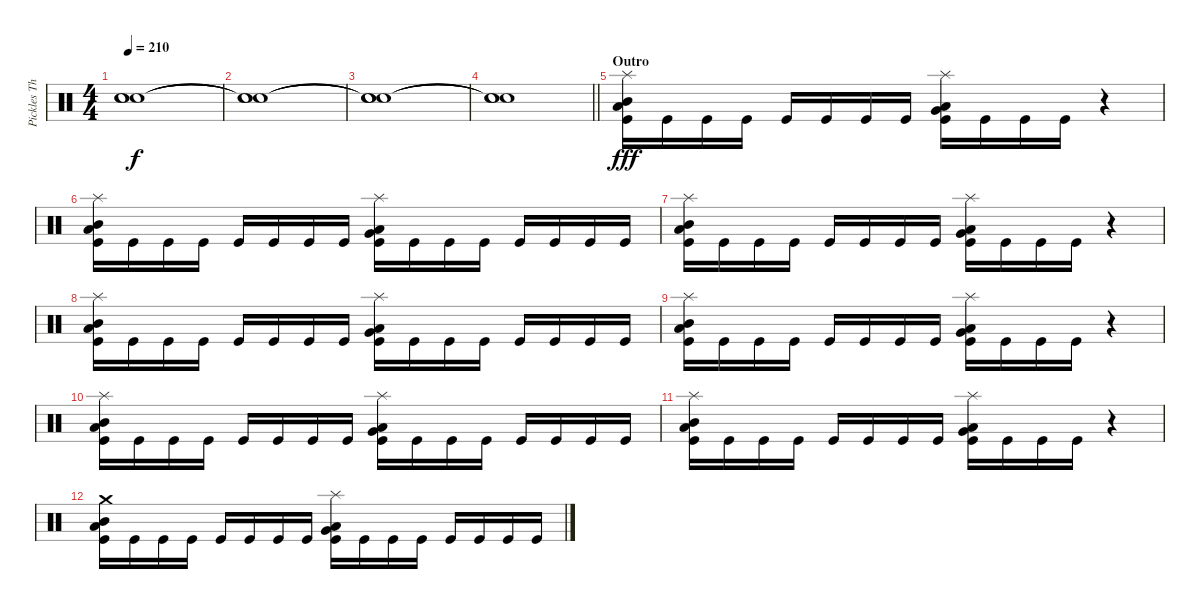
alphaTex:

\track ("Pickles The Drummer (Drums)" "Pickles Th") {instrument percussion}
\staff {score}
\articulation defaults
\ts (4 4)
\tempo 210
\clef neutral
\ks c
("Snare (hit)"{t} "Snare (hit)"{t} "Snare (hit)"{t}).1{dy f} |
("Snare (hit)"{t} "Snare (hit)"{t} "Snare (hit)"{t}).1 |
("Snare (hit)"{t} "Snare (hit)"{t} "Snare (hit)"{t}).1 |
\barLineRight lightlight
("Snare (hit)"{t} "Snare (hit)"{t} "Snare (hit)"{t}).1 |
\section ("" "Outro")
("Splash (hit)" "Mid Tom (hit)" "Low Tom (hit)" "Kick (hit)").16{dy fff} "Kick (hit)".16 "Kick (hit)".16 "Kick (hit)".16 "Kick (hit)".16 "Kick (hit)".16 "Kick (hit)".16 "Kick (hit)".16 ("Splash (hit)" "Very Low Tom (hit)" "Low Floor Tom (hit)" "Kick (hit)").16 "Kick (hit)".16 "Kick (hit)".16 "Kick (hit)".16 r.4 |
("Splash (hit)" "Mid Tom (hit)" "Low Tom (hit)" "Kick (hit)").16 "Kick (hit)".16 "Kick (hit)".16 "Kick (hit)".16 "Kick (hit)".16 "Kick (hit)".16 "Kick (hit)".16 "Kick (hit)".16 ("Splash (hit)" "Very Low Tom (hit)" "Low Floor Tom (hit)" "Kick (hit)").16 "Kick (hit)".16 "Kick (hit)".16 "Kick (hit)".16 "Kick (hit)".16 "Kick (hit)".16 "Kick (hit)".16 "Kick (hit)".16 |
("Splash (hit)" "Mid Tom (hit)" "Low Tom (hit)" "Kick (hit)").16 "Kick (hit)".16 "Kick (hit)".16 "Kick (hit)".16 "Kick (hit)".16 "Kick (hit)".16 "Kick (hit)".16 "Kick (hit)".16 ("Splash (hit)" "Very Low Tom (hit)" "Low Floor Tom (hit)" "Kick (hit)").16 "Kick (hit)".16 "Kick (hit)".16 "Kick (hit)".16 r.4 |
("Splash (hit)" "Mid Tom (hit)" "Low Tom (hit)" "Kick (hit)").16 "Kick (hit)".16 "Kick (hit)".16 "Kick (hit)".16 "Kick (hit)".16 "Kick (hit)".16 "Kick (hit)".16 "Kick (hit)".16 ("Splash (hit)" "Very Low Tom (hit)" "Low Floor Tom (hit)" "Kick (hit)").16 "Kick (hit)".16 "Kick (hit)".16 "Kick (hit)".16 "Kick (hit)".16 "Kick (hit)".16 "Kick (hit)".16 "Kick (hit)".16 |
("Splash (hit)" "Mid Tom (hit)" "Low Tom (hit)" "Kick (hit)").16 "Kick (hit)".16 "Kick (hit)".16 "Kick (hit)".16 "Kick (hit)".16 "Kick (hit)".16 "Kick (hit)".16 "Kick (hit)".16 ("Splash (hit)" "Very Low Tom (hit)" "Low Floor Tom (hit)" "Kick (hit)").16 "Kick (hit)".16 "Kick (hit)".16 "Kick (hit)".16 r.4 |
("Splash (hit)" "Mid Tom (hit)" "Low Tom (hit)" "Kick (hit)").16 "Kick (hit)".16 "Kick (hit)".16 "Kick (hit)".16 "Kick (hit)".16 "Kick (hit)".16 "Kick (hit)".16 "Kick (hit)".16 ("Splash (hit)" "Very Low Tom (hit)" "Low Floor Tom (hit)" "Kick (hit)").16 "Kick (hit)".16 "Kick (hit)".16 "Kick (hit)".16 "Kick (hit)".16 "Kick (hit)".16 "Kick (hit)".16 "Kick (hit)".16 |
("Splash (hit)" "Mid Tom (hit)" "Low Tom (hit)" "Kick (hit)").16 "Kick (hit)".16 "Kick (hit)".16 "Kick (hit)".16 "Kick (hit)".16 "Kick (hit)".16 "Kick (hit)".16 "Kick (hit)".16 ("Splash (hit)" "Very Low Tom (hit)" "Low Floor Tom (hit)" "Kick (hit)").16 "Kick (hit)".16 "Kick (hit)".16 "Kick (hit)".16 r.4 |
("Crash medium (hit)" "Mid Tom (hit)" "Low Tom (hit)" "Kick (hit)").16 "Kick (hit)".16 "Kick (hit)".16 "Kick (hit)".16 "Kick (hit)".16 "Kick (hit)".16 "Kick (hit)".16 "Kick (hit)".16 ("Splash (hit)" "Very Low Tom (hit)" "Low Floor Tom (hit)" "Kick (hit)").16 "Kick (hit)".16 "Kick (hit)".16 "Kick (hit)".16 "Kick (hit)".16 "Kick (hit)".16 "Kick (hit)".16 "Kick (hit)".16
